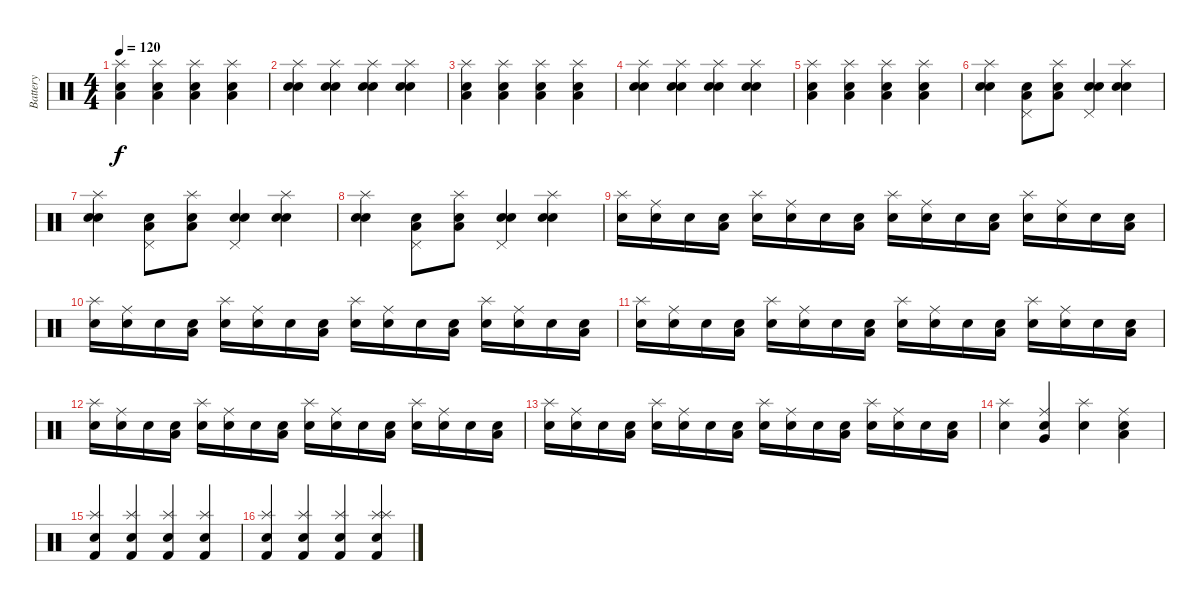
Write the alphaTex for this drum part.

\track ("Battery" "Battery") {instrument percussion}
\staff {score}
\articulation defaults
\ts (4 4)
\tempo 120
\clef neutral
\ks c
("Snare (hit) 2" "Low Floor Tom (hit)" "Splash (hit)").4{dy f} ("Snare (hit) 2" "Low Floor Tom (hit)" "Splash (hit)").4 ("Snare (hit) 2" "Low Floor Tom (hit)" "Splash (hit)").4 ("Snare (hit) 2" "Low Floor Tom (hit)" "Splash (hit)").4 |
("Snare (hit) 2" "Electric Snare (hit)" "Splash (hit)").4 ("Snare (hit) 2" "Electric Snare (hit)" "Splash (hit)").4 ("Snare (hit) 2" "Electric Snare (hit)" "Splash (hit)").4 ("Snare (hit) 2" "Electric Snare (hit)" "Splash (hit)").4 |
("Snare (hit) 2" "Low Floor Tom (hit)" "Splash (hit)").4 ("Snare (hit) 2" "Low Floor Tom (hit)" "Splash (hit)").4 ("Snare (hit) 2" "Low Floor Tom (hit)" "Splash (hit)").4 ("Snare (hit) 2" "Low Floor Tom (hit)" "Splash (hit)").4 |
("Snare (hit) 2" "Electric Snare (hit)" "Splash (hit)").4 ("Snare (hit) 2" "Electric Snare (hit)" "Splash (hit)").4 ("Snare (hit) 2" "Electric Snare (hit)" "Splash (hit)").4 ("Snare (hit) 2" "Electric Snare (hit)" "Splash (hit)").4 |
("Snare (hit) 2" "Low Floor Tom (hit)" "Splash (hit)").4 ("Snare (hit) 2" "Low Floor Tom (hit)" "Splash (hit)").4 ("Snare (hit) 2" "Low Floor Tom (hit)" "Splash (hit)").4 ("Snare (hit) 2" "Low Floor Tom (hit)" "Splash (hit)").4 |
("Snare (hit) 2" "Electric Snare (hit)" "Splash (hit)").4 ("Snare (hit) 2" "Low Floor Tom (hit)" "Pedal Hi-Hat (hit)").8 ("Snare (hit) 2" "Low Floor Tom (hit)" "Splash (hit)").8 ("Snare (hit) 2" "Electric Snare (hit)" "Pedal Hi-Hat (hit)").4 ("Snare (hit) 2" "Electric Snare (hit)" "Splash (hit)").4 |
("Snare (hit) 2" "Electric Snare (hit)" "Splash (hit)").4 ("Snare (hit) 2" "Low Floor Tom (hit)" "Pedal Hi-Hat (hit)").8 ("Snare (hit) 2" "Low Floor Tom (hit)" "Splash (hit)").8 ("Snare (hit) 2" "Electric Snare (hit)" "Pedal Hi-Hat (hit)").4 ("Snare (hit) 2" "Electric Snare (hit)" "Splash (hit)").4 |
("Snare (hit) 2" "Electric Snare (hit)" "Splash (hit)").4 ("Snare (hit) 2" "Low Floor Tom (hit)" "Pedal Hi-Hat (hit)").8 ("Snare (hit) 2" "Low Floor Tom (hit)" "Splash (hit)").8 ("Snare (hit) 2" "Electric Snare (hit)" "Pedal Hi-Hat (hit)").4 ("Snare (hit) 2" "Electric Snare (hit)" "Splash (hit)").4 |
("Snare (hit) 2" "Splash (hit)").16 ("Snare (hit) 2" "Ride (middle)").16 "Snare (hit) 2".16 ("Snare (hit) 2" "Low Floor Tom (hit)").16 ("Snare (hit) 2" "Splash (hit)").16 ("Snare (hit) 2" "Ride (middle)").16 "Snare (hit) 2".16 ("Snare (hit) 2" "Low Floor Tom (hit)").16 ("Electric Snare (hit)" "Splash (hit)").16 ("Electric Snare (hit)" "Ride (middle)").16 "Electric Snare (hit)".16 ("Electric Snare (hit)" "Low Floor Tom (hit)").16 ("Electric Snare (hit)" "Splash (hit)").16 ("Electric Snare (hit)" "Ride (middle)").16 "Electric Snare (hit)".16 ("Electric Snare (hit)" "Low Floor Tom (hit)").16 |
("Snare (hit) 2" "Splash (hit)").16 ("Snare (hit) 2" "Ride (middle)").16 "Snare (hit) 2".16 ("Snare (hit) 2" "Low Floor Tom (hit)").16 ("Snare (hit) 2" "Splash (hit)").16 ("Snare (hit) 2" "Ride (middle)").16 "Snare (hit) 2".16 ("Snare (hit) 2" "Low Floor Tom (hit)").16 ("Electric Snare (hit)" "Splash (hit)").16 ("Electric Snare (hit)" "Ride (middle)").16 "Electric Snare (hit)".16 ("Electric Snare (hit)" "Low Floor Tom (hit)").16 ("Electric Snare (hit)" "Splash (hit)").16 ("Electric Snare (hit)" "Ride (middle)").16 "Electric Snare (hit)".16 ("Electric Snare (hit)" "Low Floor Tom (hit)").16 |
("Snare (hit) 2" "Splash (hit)").16 ("Snare (hit) 2" "Ride (middle)").16 "Snare (hit) 2".16 ("Snare (hit) 2" "Low Floor Tom (hit)").16 ("Snare (hit) 2" "Splash (hit)").16 ("Snare (hit) 2" "Ride (middle)").16 "Snare (hit) 2".16 ("Snare (hit) 2" "Low Floor Tom (hit)").16 ("Electric Snare (hit)" "Splash (hit)").16 ("Electric Snare (hit)" "Ride (middle)").16 "Electric Snare (hit)".16 ("Electric Snare (hit)" "Low Floor Tom (hit)").16 ("Electric Snare (hit)" "Splash (hit)").16 ("Electric Snare (hit)" "Ride (middle)").16 "Electric Snare (hit)".16 ("Electric Snare (hit)" "Low Floor Tom (hit)").16 |
("Snare (hit) 2" "Splash (hit)").16 ("Snare (hit) 2" "Ride (middle)").16 "Snare (hit) 2".16 ("Snare (hit) 2" "Low Floor Tom (hit)").16 ("Snare (hit) 2" "Splash (hit)").16 ("Snare (hit) 2" "Ride (middle)").16 "Snare (hit) 2".16 ("Snare (hit) 2" "Low Floor Tom (hit)").16 ("Electric Snare (hit)" "Splash (hit)").16 ("Electric Snare (hit)" "Ride (middle)").16 "Electric Snare (hit)".16 ("Electric Snare (hit)" "Low Floor Tom (hit)").16 ("Electric Snare (hit)" "Splash (hit)").16 ("Electric Snare (hit)" "Ride (middle)").16 "Electric Snare (hit)".16 ("Electric Snare (hit)" "Low Floor Tom (hit)").16 |
("Snare (hit) 2" "Splash (hit)").16 ("Snare (hit) 2" "Ride (middle)").16 "Snare (hit) 2".16 ("Snare (hit) 2" "Low Floor Tom (hit)").16 ("Snare (hit) 2" "Splash (hit)").16 ("Snare (hit) 2" "Ride (middle)").16 "Snare (hit) 2".16 ("Snare (hit) 2" "Low Floor Tom (hit)").16 ("Electric Snare (hit)" "Splash (hit)").16 ("Electric Snare (hit)" "Ride (middle)").16 "Electric Snare (hit)".16 ("Electric Snare (hit)" "Low Floor Tom (hit)").16 ("Electric Snare (hit)" "Splash (hit)").16 ("Electric Snare (hit)" "Ride (middle)").16 "Electric Snare (hit)".16 ("Electric Snare (hit)" "Low Floor Tom (hit)").16 |
("Snare (hit) 2" "Splash (hit)").4 ("Snare (hit) 2" "Very Low Tom (hit)" "Ride (middle)").4 ("Electric Snare (hit)" "Splash (hit)").4 ("Electric Snare (hit)" "Low Floor Tom (hit)" "Ride (middle)").4 |
("Snare (hit) 2" "Kick (hit) 2" "Splash (hit)").4 ("Snare (hit) 2" "Kick (hit) 2" "Splash (hit)").4 ("Snare (hit) 2" "Kick (hit) 2" "Splash (hit)").4 ("Snare (hit) 2" "Kick (hit) 2" "Splash (hit)").4 |
("Kick (hit) 2" "Snare (hit) 2" "Splash (hit)").4 ("Kick (hit) 2" "Snare (hit) 2" "Splash (hit)").4 ("Kick (hit) 2" "Snare (hit) 2" "Splash (hit)").4 ("Kick (hit) 2" "Snare (hit) 2" "Splash (hit)" "Splash (hit)").4
